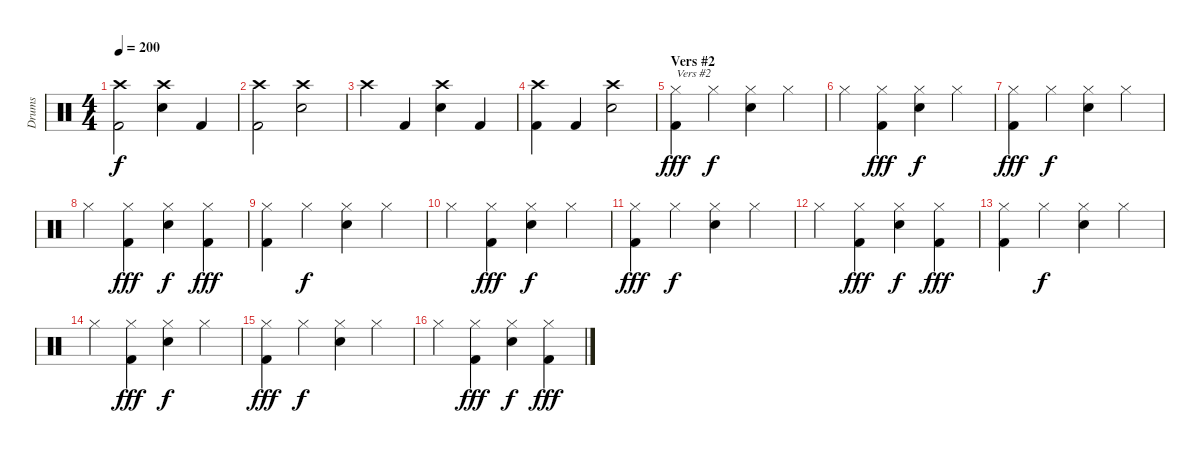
\track ("Drums" "Drums") {instrument percussion}
\staff {score}
\articulation defaults
\ts (4 4)
\tempo 200
\clef neutral
\ks c
("Crash high (hit)" "Kick (hit) 2").2{dy f} ("Crash high (hit)" "Electric Snare (hit)").4 "Kick (hit) 2".4 |
("Crash high (hit)" "Kick (hit) 2").2 ("Crash high (hit)" "Electric Snare (hit)").2 |
"Crash high (hit)".4 "Kick (hit) 2".4 ("Crash high (hit)" "Electric Snare (hit)").4 "Kick (hit) 2".4 |
("Crash high (hit)" "Kick (hit) 2").4 "Kick (hit) 2".4 ("Crash high (hit)" "Electric Snare (hit)").2 |
\section ("" "Vers #2")
("Hi-Hat (closed)" "Kick (hit) 2").4{txt "Vers #2" dy fff} "Hi-Hat (closed)".4{dy f} ("Hi-Hat (closed)" "Electric Snare (hit)").4 "Hi-Hat (closed)".4 |
"Hi-Hat (closed)".4 ("Hi-Hat (closed)" "Kick (hit) 2").4{dy fff} ("Hi-Hat (closed)" "Electric Snare (hit)").4{dy f} "Hi-Hat (closed)".4 |
("Hi-Hat (closed)" "Kick (hit) 2").4{dy fff} "Hi-Hat (closed)".4{dy f} ("Hi-Hat (closed)" "Electric Snare (hit)").4 "Hi-Hat (closed)".4 |
"Hi-Hat (closed)".4 ("Hi-Hat (closed)" "Kick (hit) 2").4{dy fff} ("Hi-Hat (closed)" "Electric Snare (hit)").4{dy f} ("Hi-Hat (closed)" "Kick (hit) 2").4{dy fff} |
("Hi-Hat (closed)" "Kick (hit) 2").4 "Hi-Hat (closed)".4{dy f} ("Hi-Hat (closed)" "Electric Snare (hit)").4 "Hi-Hat (closed)".4 |
"Hi-Hat (closed)".4 ("Hi-Hat (closed)" "Kick (hit) 2").4{dy fff} ("Hi-Hat (closed)" "Electric Snare (hit)").4{dy f} "Hi-Hat (closed)".4 |
("Hi-Hat (closed)" "Kick (hit) 2").4{dy fff} "Hi-Hat (closed)".4{dy f} ("Hi-Hat (closed)" "Electric Snare (hit)").4 "Hi-Hat (closed)".4 |
"Hi-Hat (closed)".4 ("Hi-Hat (closed)" "Kick (hit) 2").4{dy fff} ("Hi-Hat (closed)" "Electric Snare (hit)").4{dy f} ("Hi-Hat (closed)" "Kick (hit) 2").4{dy fff} |
("Hi-Hat (closed)" "Kick (hit) 2").4 "Hi-Hat (closed)".4{dy f} ("Hi-Hat (closed)" "Electric Snare (hit)").4 "Hi-Hat (closed)".4 |
"Hi-Hat (closed)".4 ("Hi-Hat (closed)" "Kick (hit) 2").4{dy fff} ("Hi-Hat (closed)" "Electric Snare (hit)").4{dy f} "Hi-Hat (closed)".4 |
("Hi-Hat (closed)" "Kick (hit) 2").4{dy fff} "Hi-Hat (closed)".4{dy f} ("Hi-Hat (closed)" "Electric Snare (hit)").4 "Hi-Hat (closed)".4 |
"Hi-Hat (closed)".4 ("Hi-Hat (closed)" "Kick (hit) 2").4{dy fff} ("Hi-Hat (closed)" "Electric Snare (hit)").4{dy f} ("Hi-Hat (closed)" "Kick (hit) 2").4{dy fff}
